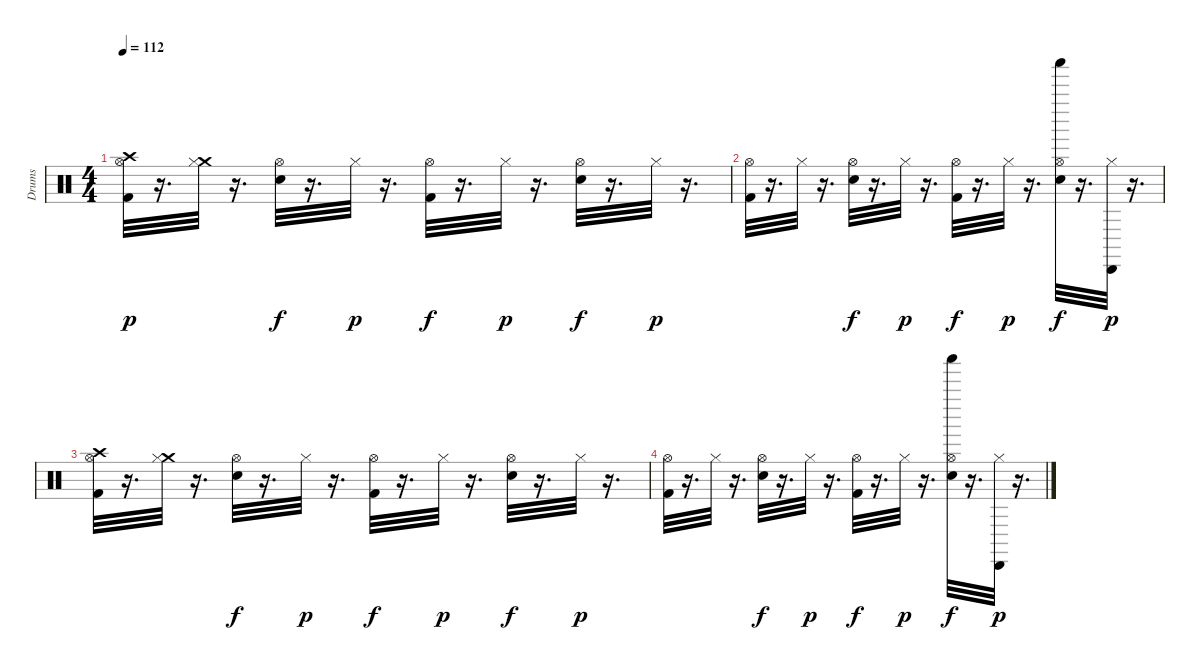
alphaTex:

\track ("Drums" "Drums") {instrument percussion}
\staff {score}
\articulation defaults
\ts (4 4)
\tempo 112
\clef neutral
\ks c
("Crash high (hit)" "Hi-Hat (open)" "Kick (hit) 2").32{dy p} r.16{d} ("Crash medium (hit)" "Hi-Hat (closed)").32 r.16{d} ("Hi-Hat (open)" "Snare (hit) 2").32{dy f} r.16{d} "Hi-Hat (closed)".32{dy p} r.16{d} ("Hi-Hat (open)" "Kick (hit) 2").32{dy f} r.16{d} "Hi-Hat (closed)".32{dy p} r.16{d} ("Hi-Hat (open)" "Snare (hit) 2").32{dy f} r.16{d} "Hi-Hat (closed)".32{dy p} r.16{d} |
("Hi-Hat (open)" "Kick (hit) 2").32 r.16{d} "Hi-Hat (closed)".32 r.16{d} ("Hi-Hat (open)" "Snare (hit) 2").32{dy f} r.16{d} "Hi-Hat (closed)".32{dy p} r.16{d} ("Hi-Hat (open)" "Kick (hit) 2").32{dy f} r.16{d} "Hi-Hat (closed)".32{dy p} r.16{d} ("Shaker (hit)" "Hi-Hat (open)" "Snare (hit) 2").32{dy f} r.16{d} ("Hi-Hat (closed)" "Cabasa (hit)").32{dy p} r.16{d} |
("Crash high (hit)" "Hi-Hat (open)" "Kick (hit) 2").32 r.16{d} ("Crash medium (hit)" "Hi-Hat (closed)").32 r.16{d} ("Hi-Hat (open)" "Snare (hit) 2").32{dy f} r.16{d} "Hi-Hat (closed)".32{dy p} r.16{d} ("Hi-Hat (open)" "Kick (hit) 2").32{dy f} r.16{d} "Hi-Hat (closed)".32{dy p} r.16{d} ("Hi-Hat (open)" "Snare (hit) 2").32{dy f} r.16{d} "Hi-Hat (closed)".32{dy p} r.16{d} |
("Hi-Hat (open)" "Kick (hit) 2").32 r.16{d} "Hi-Hat (closed)".32 r.16{d} ("Hi-Hat (open)" "Snare (hit) 2").32{dy f} r.16{d} "Hi-Hat (closed)".32{dy p} r.16{d} ("Hi-Hat (open)" "Kick (hit) 2").32{dy f} r.16{d} "Hi-Hat (closed)".32{dy p} r.16{d} ("Shaker (hit)" "Hi-Hat (open)" "Snare (hit) 2").32{dy f} r.16{d} ("Hi-Hat (closed)" "Cabasa (hit)").32{dy p} r.16{d}
